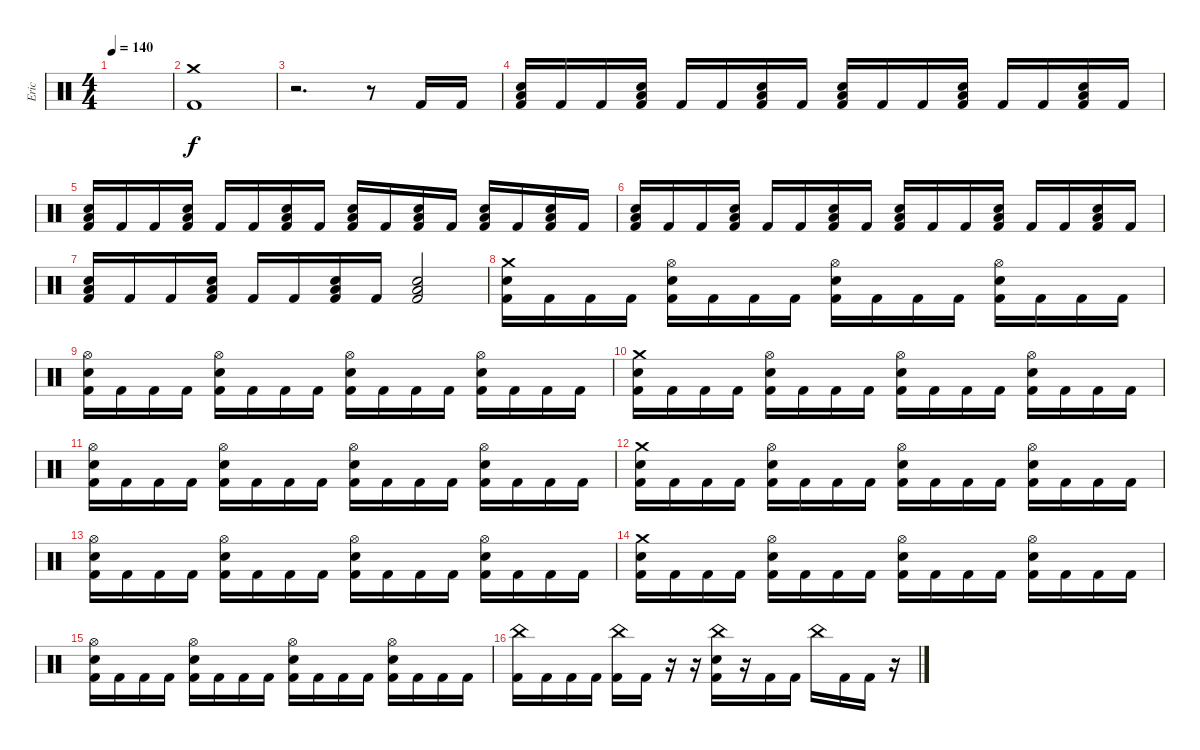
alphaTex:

\track ("Eric" "Eric") {instrument percussion}
\staff {score}
\articulation defaults
\ts (4 4)
\tempo 140
\clef neutral
\ks c
|
("Crash medium (hit)" "Kick (hit) 2").1 |
r.2{d} r.8 "Kick (hit) 2".16 "Kick (hit) 2".16 |
("Low Tom (hit)" "Electric Snare (hit)" "Kick (hit) 2").16 "Kick (hit) 2".16 "Kick (hit) 2".16 ("Low Tom (hit)" "Electric Snare (hit)" "Kick (hit) 2").16 "Kick (hit) 2".16 "Kick (hit) 2".16 ("Low Tom (hit)" "Electric Snare (hit)" "Kick (hit) 2").16 "Kick (hit) 2".16 ("Low Tom (hit)" "Electric Snare (hit)" "Kick (hit) 2").16 "Kick (hit) 2".16 "Kick (hit) 2".16 ("Low Tom (hit)" "Electric Snare (hit)" "Kick (hit) 2").16 "Kick (hit) 2".16 "Kick (hit) 2".16 ("Low Tom (hit)" "Electric Snare (hit)" "Kick (hit) 2").16 "Kick (hit) 2".16 |
("Low Tom (hit)" "Electric Snare (hit)" "Kick (hit) 2").16 "Kick (hit) 2".16 "Kick (hit) 2".16 ("Low Tom (hit)" "Electric Snare (hit)" "Kick (hit) 2").16 "Kick (hit) 2".16 "Kick (hit) 2".16 ("Low Tom (hit)" "Electric Snare (hit)" "Kick (hit) 2").16 "Kick (hit) 2".16 ("Low Tom (hit)" "Electric Snare (hit)" "Kick (hit) 2").16 "Kick (hit) 2".16 ("Low Tom (hit)" "Electric Snare (hit)" "Kick (hit) 2").16 "Kick (hit) 2".16 ("Electric Snare (hit)" "Low Tom (hit)" "Kick (hit) 2").16 "Kick (hit) 2".16 ("Low Tom (hit)" "Electric Snare (hit)" "Kick (hit) 2").16 "Kick (hit) 2".16 |
("Low Tom (hit)" "Electric Snare (hit)" "Kick (hit) 2").16 "Kick (hit) 2".16 "Kick (hit) 2".16 ("Low Tom (hit)" "Electric Snare (hit)" "Kick (hit) 2").16 "Kick (hit) 2".16 "Kick (hit) 2".16 ("Low Tom (hit)" "Electric Snare (hit)" "Kick (hit) 2").16 "Kick (hit) 2".16 ("Low Tom (hit)" "Electric Snare (hit)" "Kick (hit) 2").16 "Kick (hit) 2".16 "Kick (hit) 2".16 ("Low Tom (hit)" "Electric Snare (hit)" "Kick (hit) 2").16 "Kick (hit) 2".16 "Kick (hit) 2".16 ("Low Tom (hit)" "Electric Snare (hit)" "Kick (hit) 2").16 "Kick (hit) 2".16 |
("Low Tom (hit)" "Electric Snare (hit)" "Kick (hit) 2").16 "Kick (hit) 2".16 "Kick (hit) 2".16 ("Low Tom (hit)" "Electric Snare (hit)" "Kick (hit) 2").16 "Kick (hit) 2".16 "Kick (hit) 2".16 ("Low Tom (hit)" "Electric Snare (hit)" "Kick (hit) 2").16 "Kick (hit) 2".16 ("Low Tom (hit)" "Electric Snare (hit)" "Kick (hit) 2").2 |
("Crash medium (hit)" "Electric Snare (hit)" "Kick (hit) 2").16 "Kick (hit) 2".16 "Kick (hit) 2".16 "Kick (hit) 2".16 ("Hi-Hat (open)" "Electric Snare (hit)" "Kick (hit) 2").16 "Kick (hit) 2".16 "Kick (hit) 2".16 "Kick (hit) 2".16 ("Hi-Hat (open)" "Electric Snare (hit)" "Kick (hit) 2").16 "Kick (hit) 2".16 "Kick (hit) 2".16 "Kick (hit) 2".16 ("Hi-Hat (open)" "Electric Snare (hit)" "Kick (hit) 2").16 "Kick (hit) 2".16 "Kick (hit) 2".16 "Kick (hit) 2".16 |
("Hi-Hat (open)" "Electric Snare (hit)" "Kick (hit) 2").16 "Kick (hit) 2".16 "Kick (hit) 2".16 "Kick (hit) 2".16 ("Hi-Hat (open)" "Electric Snare (hit)" "Kick (hit) 2").16 "Kick (hit) 2".16 "Kick (hit) 2".16 "Kick (hit) 2".16 ("Hi-Hat (open)" "Electric Snare (hit)" "Kick (hit) 2").16 "Kick (hit) 2".16 "Kick (hit) 2".16 "Kick (hit) 2".16 ("Hi-Hat (open)" "Electric Snare (hit)" "Kick (hit) 2").16 "Kick (hit) 2".16 "Kick (hit) 2".16 "Kick (hit) 2".16 |
("Crash medium (hit)" "Electric Snare (hit)" "Kick (hit) 2").16 "Kick (hit) 2".16 "Kick (hit) 2".16 "Kick (hit) 2".16 ("Hi-Hat (open)" "Electric Snare (hit)" "Kick (hit) 2").16 "Kick (hit) 2".16 "Kick (hit) 2".16 "Kick (hit) 2".16 ("Hi-Hat (open)" "Electric Snare (hit)" "Kick (hit) 2").16 "Kick (hit) 2".16 "Kick (hit) 2".16 "Kick (hit) 2".16 ("Hi-Hat (open)" "Electric Snare (hit)" "Kick (hit) 2").16 "Kick (hit) 2".16 "Kick (hit) 2".16 "Kick (hit) 2".16 |
("Hi-Hat (open)" "Electric Snare (hit)" "Kick (hit) 2").16 "Kick (hit) 2".16 "Kick (hit) 2".16 "Kick (hit) 2".16 ("Hi-Hat (open)" "Electric Snare (hit)" "Kick (hit) 2").16 "Kick (hit) 2".16 "Kick (hit) 2".16 "Kick (hit) 2".16 ("Hi-Hat (open)" "Electric Snare (hit)" "Kick (hit) 2").16 "Kick (hit) 2".16 "Kick (hit) 2".16 "Kick (hit) 2".16 ("Hi-Hat (open)" "Electric Snare (hit)" "Kick (hit) 2").16 "Kick (hit) 2".16 "Kick (hit) 2".16 "Kick (hit) 2".16 |
("Crash medium (hit)" "Electric Snare (hit)" "Kick (hit) 2").16 "Kick (hit) 2".16 "Kick (hit) 2".16 "Kick (hit) 2".16 ("Hi-Hat (open)" "Electric Snare (hit)" "Kick (hit) 2").16 "Kick (hit) 2".16 "Kick (hit) 2".16 "Kick (hit) 2".16 ("Hi-Hat (open)" "Electric Snare (hit)" "Kick (hit) 2").16 "Kick (hit) 2".16 "Kick (hit) 2".16 "Kick (hit) 2".16 ("Hi-Hat (open)" "Electric Snare (hit)" "Kick (hit) 2").16 "Kick (hit) 2".16 "Kick (hit) 2".16 "Kick (hit) 2".16 |
("Hi-Hat (open)" "Electric Snare (hit)" "Kick (hit) 2").16 "Kick (hit) 2".16 "Kick (hit) 2".16 "Kick (hit) 2".16 ("Hi-Hat (open)" "Electric Snare (hit)" "Kick (hit) 2").16 "Kick (hit) 2".16 "Kick (hit) 2".16 "Kick (hit) 2".16 ("Hi-Hat (open)" "Electric Snare (hit)" "Kick (hit) 2").16 "Kick (hit) 2".16 "Kick (hit) 2".16 "Kick (hit) 2".16 ("Hi-Hat (open)" "Electric Snare (hit)" "Kick (hit) 2").16 "Kick (hit) 2".16 "Kick (hit) 2".16 "Kick (hit) 2".16 |
("Crash medium (hit)" "Electric Snare (hit)" "Kick (hit) 2").16 "Kick (hit) 2".16 "Kick (hit) 2".16 "Kick (hit) 2".16 ("Hi-Hat (open)" "Electric Snare (hit)" "Kick (hit) 2").16 "Kick (hit) 2".16 "Kick (hit) 2".16 "Kick (hit) 2".16 ("Hi-Hat (open)" "Electric Snare (hit)" "Kick (hit) 2").16 "Kick (hit) 2".16 "Kick (hit) 2".16 "Kick (hit) 2".16 ("Hi-Hat (open)" "Electric Snare (hit)" "Kick (hit) 2").16 "Kick (hit) 2".16 "Kick (hit) 2".16 "Kick (hit) 2".16 |
("Hi-Hat (open)" "Electric Snare (hit)" "Kick (hit) 2").16 "Kick (hit) 2".16 "Kick (hit) 2".16 "Kick (hit) 2".16 ("Hi-Hat (open)" "Electric Snare (hit)" "Kick (hit) 2").16 "Kick (hit) 2".16 "Kick (hit) 2".16 "Kick (hit) 2".16 ("Hi-Hat (open)" "Electric Snare (hit)" "Kick (hit) 2").16 "Kick (hit) 2".16 "Kick (hit) 2".16 "Kick (hit) 2".16 ("Hi-Hat (open)" "Electric Snare (hit)" "Kick (hit) 2").16 "Kick (hit) 2".16 "Kick (hit) 2".16 "Kick (hit) 2".16 |
("China (hit)" "Kick (hit) 2").16 "Kick (hit) 2".16 "Kick (hit) 2".16 "Kick (hit) 2".16 ("China (hit)" "Kick (hit) 2").16 "Kick (hit) 2".16 r.16 r.16 ("China (hit)" "Electric Snare (hit)" "Kick (hit) 2").16 r.16 "Kick (hit) 2".16 "Kick (hit) 2".16 "China (hit)".16 "Kick (hit) 2".16 "Kick (hit) 2".16 r.16
